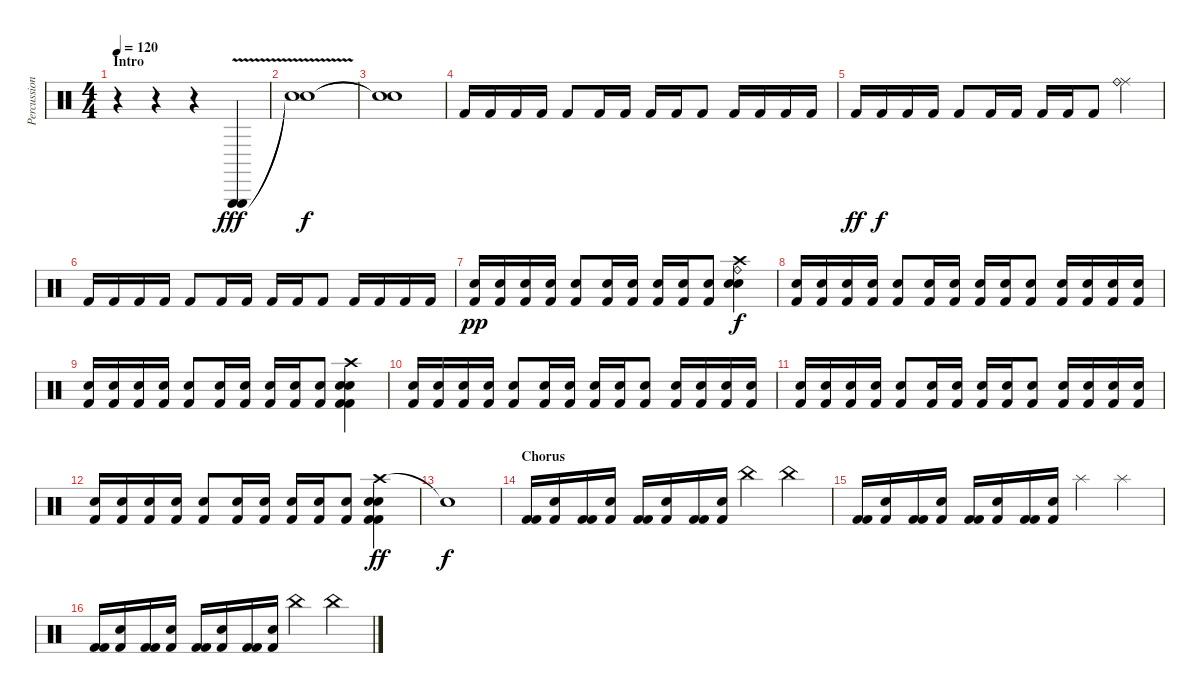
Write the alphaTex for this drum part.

\track ("Percussions" "Percussion") {instrument percussion}
\staff {score}
\articulation defaults
\ts (4 4)
\section ("" "Intro")
\tempo 120
\clef neutral
\ks c
r.4{dy fff} r.4 r.4 ("Triangle (hit)"{v} "Triangle (hit)").4 |
("Snare (hit)"{t} "Snare (hit)"{t}).1{dy f} |
("Snare (hit)"{t} "Snare (hit)"{t}).1 |
"Kick (hit) 2".16 "Kick (hit) 2".16 "Kick (hit) 2".16 "Kick (hit) 2".16 "Kick (hit) 2".8 "Kick (hit) 2".16 "Kick (hit) 2".16 "Kick (hit) 2".16 "Kick (hit) 2".16 "Kick (hit) 2".8 "Kick (hit) 2".16 "Kick (hit) 2".16 "Kick (hit) 2".16 "Kick (hit) 2".16 |
"Kick (hit) 2".16{dy ff} "Kick (hit) 2".16{dy f} "Kick (hit) 2".16 "Kick (hit) 2".16 "Kick (hit) 2".8 "Kick (hit) 2".16 "Kick (hit) 2".16 "Kick (hit) 2".16 "Kick (hit) 2".16 "Kick (hit) 2".8 ("Ride (middle)" "Ride (bell)").4 |
"Kick (hit) 2".16 "Kick (hit) 2".16 "Kick (hit) 2".16 "Kick (hit) 2".16 "Kick (hit) 2".8 "Kick (hit) 2".16 "Kick (hit) 2".16 "Kick (hit) 2".16 "Kick (hit) 2".16 "Kick (hit) 2".8 "Kick (hit) 2".16 "Kick (hit) 2".16 "Kick (hit) 2".16 "Kick (hit) 2".16 |
("Kick (hit) 2" "Snare (hit) 2").16{dy pp} ("Kick (hit) 2" "Snare (hit) 2").16 ("Kick (hit) 2" "Snare (hit) 2").16 ("Kick (hit) 2" "Snare (hit) 2").16 ("Kick (hit) 2" "Snare (hit) 2").8 ("Kick (hit) 2" "Snare (hit) 2").16 ("Kick (hit) 2" "Snare (hit) 2").16 ("Kick (hit) 2" "Snare (hit) 2").16 ("Kick (hit) 2" "Snare (hit) 2").16 ("Kick (hit) 2" "Snare (hit) 2").8 ("Crash high (hit)" "Electric Snare (hit)" "Electric Snare (hit)" "Ride (bell)").4{dy f} |
("Snare (hit) 2" "Kick (hit) 2").16 ("Snare (hit) 2" "Kick (hit) 2").16 ("Snare (hit) 2" "Kick (hit) 2").16 ("Snare (hit) 2" "Kick (hit) 2").16 ("Snare (hit) 2" "Kick (hit) 2").8 ("Snare (hit) 2" "Kick (hit) 2").16 ("Snare (hit) 2" "Kick (hit) 2").16 ("Snare (hit) 2" "Kick (hit) 2").16 ("Snare (hit) 2" "Kick (hit) 2").16 ("Snare (hit) 2" "Kick (hit) 2").8 ("Snare (hit) 2" "Kick (hit) 2").16 ("Snare (hit) 2" "Kick (hit) 2").16 ("Snare (hit) 2" "Kick (hit) 2").16 ("Snare (hit) 2" "Kick (hit) 2").16 |
("Snare (hit) 2" "Kick (hit) 2").16 ("Snare (hit) 2" "Kick (hit) 2").16 ("Snare (hit) 2" "Kick (hit) 2").16 ("Snare (hit) 2" "Kick (hit) 2").16 ("Snare (hit) 2" "Kick (hit) 2").8 ("Snare (hit) 2" "Kick (hit) 2").16 ("Snare (hit) 2" "Kick (hit) 2").16 ("Snare (hit) 2" "Kick (hit) 2").16 ("Snare (hit) 2" "Kick (hit) 2").16 ("Snare (hit) 2" "Kick (hit) 2").8 ("Crash high (hit)" "Electric Snare (hit)" "Snare (hit) 2" "Kick (hit) 2" "Kick (hit) 2").4 |
("Snare (hit) 2" "Kick (hit) 2").16 ("Snare (hit) 2" "Kick (hit) 2").16 ("Snare (hit) 2" "Kick (hit) 2").16 ("Snare (hit) 2" "Kick (hit) 2").16 ("Snare (hit) 2" "Kick (hit) 2").8 ("Snare (hit) 2" "Kick (hit) 2").16 ("Snare (hit) 2" "Kick (hit) 2").16 ("Snare (hit) 2" "Kick (hit) 2").16 ("Snare (hit) 2" "Kick (hit) 2").16 ("Snare (hit) 2" "Kick (hit) 2").8 ("Snare (hit) 2" "Kick (hit) 2").16 ("Snare (hit) 2" "Kick (hit) 2").16 ("Snare (hit) 2" "Kick (hit) 2").16 ("Snare (hit) 2" "Kick (hit) 2").16 |
("Snare (hit) 2" "Kick (hit) 2").16 ("Snare (hit) 2" "Kick (hit) 2").16 ("Snare (hit) 2" "Kick (hit) 2").16 ("Snare (hit) 2" "Kick (hit) 2").16 ("Snare (hit) 2" "Kick (hit) 2").8 ("Snare (hit) 2" "Kick (hit) 2").16 ("Snare (hit) 2" "Kick (hit) 2").16 ("Snare (hit) 2" "Kick (hit) 2").16 ("Snare (hit) 2" "Kick (hit) 2").16 ("Snare (hit) 2" "Kick (hit) 2").8 ("Snare (hit) 2" "Kick (hit) 2").16 ("Snare (hit) 2" "Kick (hit) 2").16 ("Snare (hit) 2" "Kick (hit) 2").16 ("Snare (hit) 2" "Kick (hit) 2").16 |
("Snare (hit) 2" "Kick (hit) 2").16 ("Snare (hit) 2" "Kick (hit) 2").16 ("Snare (hit) 2" "Kick (hit) 2").16 ("Snare (hit) 2" "Kick (hit) 2").16 ("Snare (hit) 2" "Kick (hit) 2").8 ("Snare (hit) 2" "Kick (hit) 2").16 ("Snare (hit) 2" "Kick (hit) 2").16 ("Snare (hit) 2" "Kick (hit) 2").16 ("Snare (hit) 2" "Kick (hit) 2").16 ("Snare (hit) 2" "Kick (hit) 2").8 ("Crash high (hit)" "Electric Snare (hit)" "Snare (hit) 2" "Kick (hit) 2" "Kick (hit) 2").4{bd 60 dy ff} |
"Snare (hit)"{t}.1{dy f} |
\section ("" "Chorus")
("Kick (hit) 2" "Kick (hit) 2").16 ("Snare (hit) 2" "Kick (hit) 2").16 ("Kick (hit) 2" "Kick (hit) 2").16 ("Snare (hit) 2" "Kick (hit) 2").16 ("Kick (hit) 2" "Kick (hit) 2").16 ("Snare (hit) 2" "Kick (hit) 2").16 ("Kick (hit) 2" "Kick (hit) 2").16 ("Snare (hit) 2" "Kick (hit) 2").16 "China (hit)".4 "China (hit)".4 |
("Kick (hit) 2" "Kick (hit) 2").16 ("Snare (hit) 2" "Kick (hit) 2").16 ("Kick (hit) 2" "Kick (hit) 2").16 ("Snare (hit) 2" "Kick (hit) 2").16 ("Kick (hit) 2" "Kick (hit) 2").16 ("Snare (hit) 2" "Kick (hit) 2").16 ("Kick (hit) 2" "Kick (hit) 2").16 ("Snare (hit) 2" "Kick (hit) 2").16 "Splash (hit)".4 "Splash (hit)".4 |
("Kick (hit) 2" "Kick (hit) 2").16 ("Snare (hit) 2" "Kick (hit) 2").16 ("Kick (hit) 2" "Kick (hit) 2").16 ("Snare (hit) 2" "Kick (hit) 2").16 ("Kick (hit) 2" "Kick (hit) 2").16 ("Snare (hit) 2" "Kick (hit) 2").16 ("Kick (hit) 2" "Kick (hit) 2").16 ("Snare (hit) 2" "Kick (hit) 2").16 "China (hit)".4 "China (hit)".4
